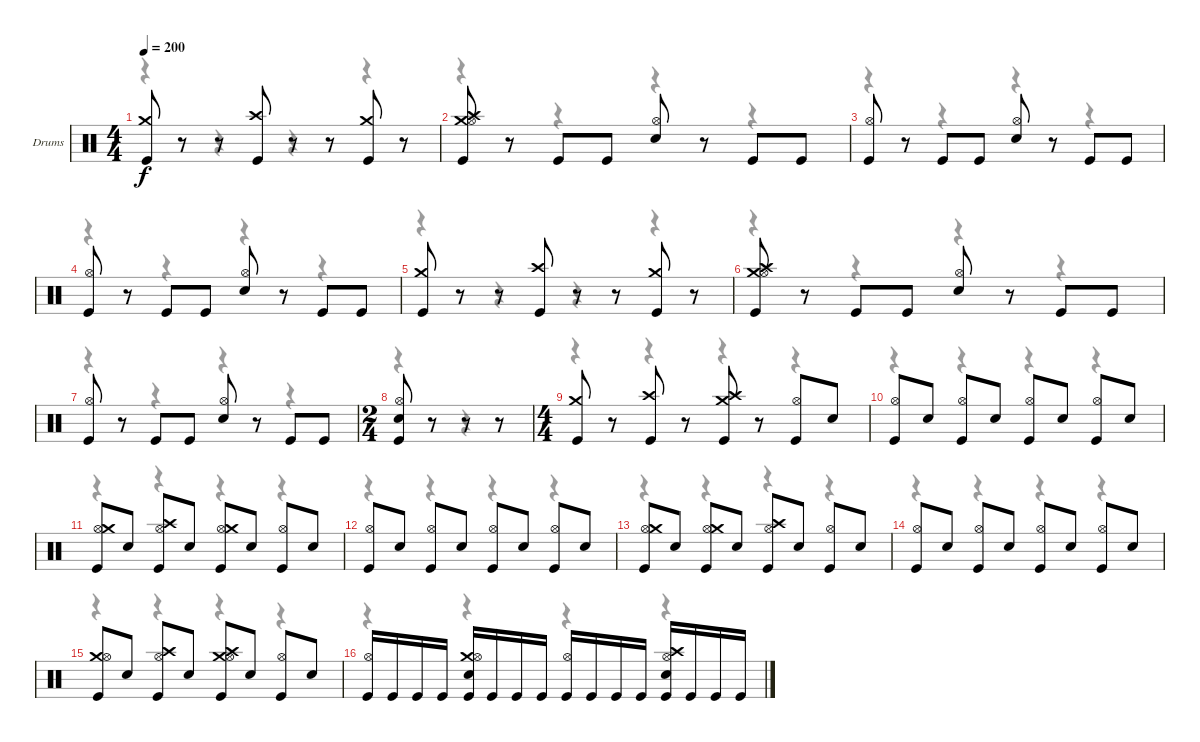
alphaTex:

\bracketExtendMode nobrackets
\firstSystemTrackNameOrientation horizontal
\otherSystemsTrackNameOrientation horizontal
\track ("Drumkit" "Drums") {instrument percussion}
\staff {score}
\articulation defaults
\voice
\ts (4 4)
\tempo 200
\clef neutral
\ks c
("Kick (hit)" "Crash medium (hit)").8{dy f} r.8 r.8 ("Crash high (hit)" "Kick (hit)").8 r.8 r.8 ("Crash medium (hit)" "Kick (hit)").8 r.8 |
("Crash high (hit)" "Crash medium (hit)" "Kick (hit)" "Hi-Hat (open)").8 r.8 "Kick (hit)".8 "Kick (hit)".8 ("Snare (hit) 2" "Hi-Hat (open)").8 r.8 "Kick (hit)".8 "Kick (hit)".8 |
("Hi-Hat (open)" "Kick (hit)").8 r.8 "Kick (hit)".8 "Kick (hit)".8 ("Hi-Hat (open)" "Snare (hit) 2").8 r.8 "Kick (hit)".8 "Kick (hit)".8 |
("Kick (hit)" "Hi-Hat (open)").8 r.8 "Kick (hit)".8 "Kick (hit)".8 ("Snare (hit) 2" "Hi-Hat (open)").8 r.8 "Kick (hit)".8 "Kick (hit)".8 |
("Kick (hit)" "Crash medium (hit)").8 r.8 r.8 ("Crash high (hit)" "Kick (hit)").8 r.8 r.8 ("Crash medium (hit)" "Kick (hit)").8 r.8 |
("Crash high (hit)" "Crash medium (hit)" "Kick (hit)" "Hi-Hat (open)").8 r.8 "Kick (hit)".8 "Kick (hit)".8 ("Snare (hit) 2" "Hi-Hat (open)").8 r.8 "Kick (hit)".8 "Kick (hit)".8 |
("Hi-Hat (open)" "Kick (hit)").8 r.8 "Kick (hit)".8 "Kick (hit)".8 ("Hi-Hat (open)" "Snare (hit) 2").8 r.8 "Kick (hit)".8 "Kick (hit)".8 |
\ts (2 4)
\beaming (8 1 1 1 1)
("Kick (hit)" "Hi-Hat (open)" "Snare (hit) 2").8 r.8 r.8 r.8 |
\ts (4 4)
\beaming (8 2 2 2 2)
("Kick (hit)" "Crash medium (hit)").8 r.8 ("Kick (hit)" "Crash high (hit)").8 r.8 ("Kick (hit)" "Crash medium (hit)" "Crash high (hit)").8 r.8 ("Kick (hit)" "Hi-Hat (open)").8 "Snare (hit) 2".8 |
("Hi-Hat (open)" "Kick (hit)").8 "Snare (hit) 2".8 ("Hi-Hat (open)" "Kick (hit)").8 "Snare (hit) 2".8 ("Hi-Hat (open)" "Kick (hit)").8 "Snare (hit) 2".8 ("Hi-Hat (open)" "Kick (hit)").8 "Snare (hit) 2".8 |
("Hi-Hat (open)" "Kick (hit)" "Crash medium (hit)").8 "Snare (hit) 2".8 ("Hi-Hat (open)" "Kick (hit)" "Crash high (hit)").8 "Snare (hit) 2".8 ("Hi-Hat (open)" "Kick (hit)" "Crash medium (hit)").8 "Snare (hit) 2".8 ("Hi-Hat (open)" "Kick (hit)").8 "Snare (hit) 2".8 |
("Hi-Hat (open)" "Kick (hit)").8 "Snare (hit) 2".8 ("Hi-Hat (open)" "Kick (hit)").8 "Snare (hit) 2".8 ("Hi-Hat (open)" "Kick (hit)").8 "Snare (hit) 2".8 ("Hi-Hat (open)" "Kick (hit)").8 "Snare (hit) 2".8 |
("Hi-Hat (open)" "Kick (hit)" "Crash medium (hit)").8 "Snare (hit) 2".8 ("Hi-Hat (open)" "Kick (hit)" "Crash medium (hit)").8 "Snare (hit) 2".8 ("Hi-Hat (open)" "Kick (hit)" "Crash high (hit)").8 "Snare (hit) 2".8 ("Hi-Hat (open)" "Kick (hit)").8 "Snare (hit) 2".8 |
("Hi-Hat (open)" "Kick (hit)").8 "Snare (hit) 2".8 ("Kick (hit)" "Hi-Hat (open)").8 "Snare (hit) 2".8 ("Kick (hit)" "Hi-Hat (open)").8 "Snare (hit) 2".8 ("Kick (hit)" "Hi-Hat (open)").8 "Snare (hit) 2".8 |
("Crash medium (hit)" "Kick (hit)" "Hi-Hat (open)").8 "Snare (hit) 2".8 ("Crash high (hit)" "Kick (hit)" "Hi-Hat (open)").8 "Snare (hit) 2".8 ("Crash high (hit)" "Crash medium (hit)" "Kick (hit)" "Hi-Hat (open)").8 "Snare (hit) 2".8 ("Kick (hit)" "Hi-Hat (open)").8 "Snare (hit) 2".8 |
("Kick (hit)" "Hi-Hat (open)").16 "Kick (hit)".16 "Kick (hit)".16 "Kick (hit)".16 ("Kick (hit)" "Snare (hit) 2" "Crash medium (hit)" "Hi-Hat (open)").16 "Kick (hit)".16 "Kick (hit)".16 "Kick (hit)".16 ("Hi-Hat (open)" "Kick (hit)").16 "Kick (hit)".16 "Kick (hit)".16 "Kick (hit)".16 ("Kick (hit)" "Snare (hit) 2" "Hi-Hat (open)" "Crash high (hit)").16 "Kick (hit)".16 "Kick (hit)".16 "Kick (hit)".16
\voice
\clef neutral
\ottava regular
\simile none
\ks c
r.4{dy mf} r.4 r.4 r.4 |
r.4 r.4 r.4 r.4 |
r.4 r.4 r.4 r.4 |
r.4 r.4 r.4 r.4 |
r.4 r.4 r.4 r.4 |
r.4 r.4 r.4 r.4 |
r.4 r.4 r.4 r.4 |
r.4 r.4 |
r.4 r.4 r.4 r.4 |
r.4 r.4 r.4 r.4 |
r.4 r.4 r.4 r.4 |
r.4 r.4 r.4 r.4 |
r.4 r.4 r.4 r.4 |
r.4 r.4 r.4 r.4 |
r.4 r.4 r.4 r.4 |
r.4 r.4 r.4 r.4
